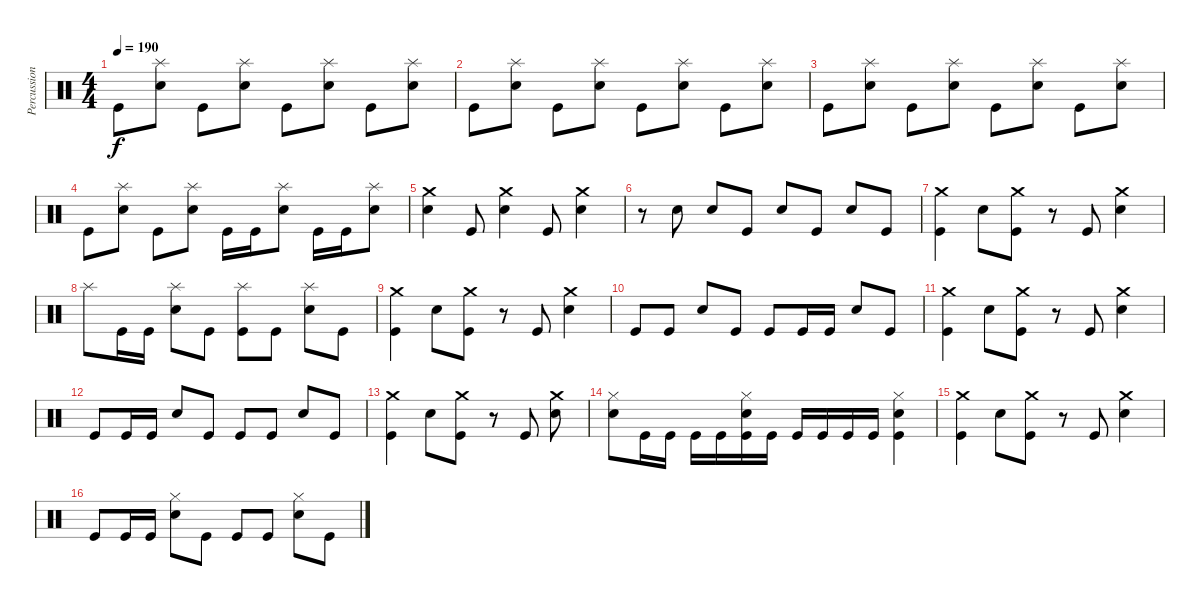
\track ("Percussion" "Percussion") {instrument percussion}
\staff {score}
\articulation defaults
\ts (4 4)
\tempo 190
\clef neutral
\ks c "Kick (hit)".8{dy f}
("Splash (hit)" "Electric Snare (hit)").8 "Kick (hit)".8 ("Splash (hit)" "Electric Snare (hit)").8 "Kick (hit)".8 ("Splash (hit)" "Electric Snare (hit)").8 "Kick (hit)".8 ("Splash (hit)" "Electric Snare (hit)").8 |
"Kick (hit)".8 ("Splash (hit)" "Electric Snare (hit)").8 "Kick (hit)".8 ("Splash (hit)" "Electric Snare (hit)").8 "Kick (hit)".8 ("Splash (hit)" "Electric Snare (hit)").8 "Kick (hit)".8 ("Splash (hit)" "Electric Snare (hit)").8 |
"Kick (hit)".8 ("Splash (hit)" "Electric Snare (hit)").8 "Kick (hit)".8 ("Splash (hit)" "Electric Snare (hit)").8 "Kick (hit)".8 ("Splash (hit)" "Electric Snare (hit)").8 "Kick (hit)".8 ("Splash (hit)" "Electric Snare (hit)").8 |
"Kick (hit)".8 ("Splash (hit)" "Electric Snare (hit)").8 "Kick (hit)".8 ("Splash (hit)" "Electric Snare (hit)").8 "Kick (hit)".16 "Kick (hit)".16 ("Splash (hit)" "Electric Snare (hit)").8 "Kick (hit)".16 "Kick (hit)".16 ("Splash (hit)" "Electric Snare (hit)").8 |
("Crash medium (hit)" "Electric Snare (hit)").4 "Kick (hit)".8 ("Crash medium (hit)" "Electric Snare (hit)").4 "Kick (hit)".8 ("Crash medium (hit)" "Electric Snare (hit)").4 |
r.8 "Electric Snare (hit)".8 "Electric Snare (hit)".8 "Kick (hit)".8 "Electric Snare (hit)".8 "Kick (hit)".8 "Electric Snare (hit)".8 "Kick (hit)".8 |
("Crash medium (hit)" "Kick (hit)").4 "Electric Snare (hit)".8 ("Crash medium (hit)" "Kick (hit)").8 r.8 "Kick (hit)".8 ("Crash medium (hit)" "Electric Snare (hit)").4 |
"Splash (hit)".8 "Kick (hit)".16 "Kick (hit)".16 ("Splash (hit)" "Electric Snare (hit)").8 "Kick (hit)".8 ("Splash (hit)" "Kick (hit)").8 "Kick (hit)".8 ("Splash (hit)" "Electric Snare (hit)").8 "Kick (hit)".8 |
("Crash medium (hit)" "Kick (hit)").4 "Electric Snare (hit)".8 ("Crash medium (hit)" "Kick (hit)").8 r.8 "Kick (hit)".8 ("Crash medium (hit)" "Electric Snare (hit)").4 |
"Kick (hit)".8 "Kick (hit)".8 "Electric Snare (hit)".8 "Kick (hit)".8 "Kick (hit)".8 "Kick (hit)".16 "Kick (hit)".16 "Electric Snare (hit)".8 "Kick (hit)".8 |
("Crash medium (hit)" "Kick (hit)").4 "Electric Snare (hit)".8 ("Crash medium (hit)" "Kick (hit)").8 r.8 "Kick (hit)".8 ("Crash medium (hit)" "Electric Snare (hit)").4 |
"Kick (hit)".8 "Kick (hit)".16 "Kick (hit)".16 "Electric Snare (hit)".8 "Kick (hit)".8 "Kick (hit)".8 "Kick (hit)".8 "Electric Snare (hit)".8 "Kick (hit)".8 |
("Crash medium (hit)" "Kick (hit)").4 "Electric Snare (hit)".8 ("Crash medium (hit)" "Kick (hit)").8 r.8 "Kick (hit)".8 ("Crash medium (hit)" "Electric Snare (hit)").8 |
("Hi-Hat (closed)" "Electric Snare (hit)").8 "Kick (hit)".16 "Kick (hit)".16 "Kick (hit)".16 "Kick (hit)".16 ("Hi-Hat (closed)" "Electric Snare (hit)" "Kick (hit)").16 "Kick (hit)".16 "Kick (hit)".16 "Kick (hit)".16 "Kick (hit)".16 "Kick (hit)".16 ("Hi-Hat (closed)" "Electric Snare (hit)" "Kick (hit)").4 |
("Crash medium (hit)" "Kick (hit)").4 "Electric Snare (hit)".8 ("Crash medium (hit)" "Kick (hit)").8 r.8 "Kick (hit)".8 ("Crash medium (hit)" "Electric Snare (hit)").4 |
"Kick (hit)".8 "Kick (hit)".16 "Kick (hit)".16 ("Hi-Hat (closed)" "Electric Snare (hit)").8 "Kick (hit)".8 "Kick (hit)".8 "Kick (hit)".8 ("Hi-Hat (closed)" "Electric Snare (hit)").8 "Kick (hit)".8
